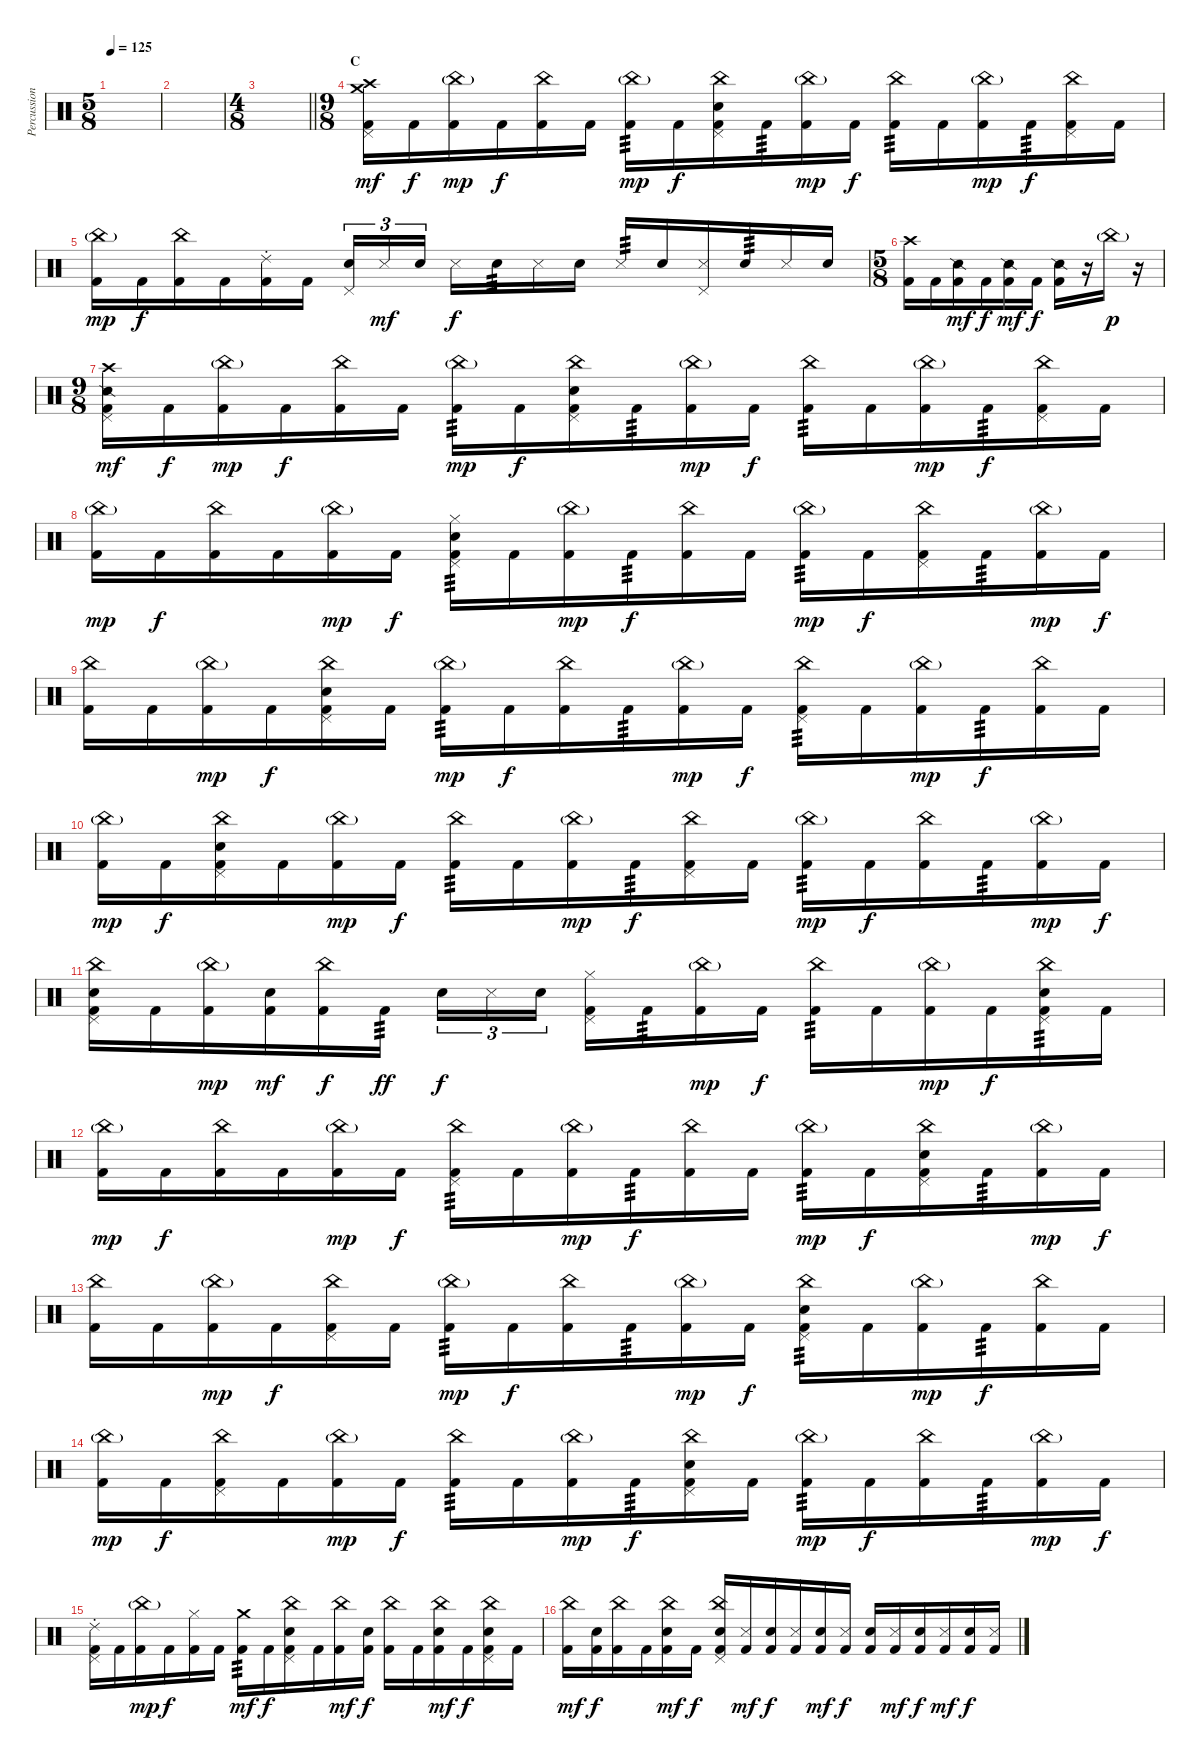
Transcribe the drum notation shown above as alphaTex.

\track ("Percussion" "Percussion") {instrument percussion}
\staff {score}
\articulation defaults
\ts (5 8)
\tempo 125
\clef neutral
\ks c
|
|
\ts (4 8)
\barLineRight lightlight
|
\ts (9 8)
\section ("" "C")
("Crash medium (hit)" "Crash high (hit)" "Pedal Hi-Hat (hit)" "Kick (hit) 2").16{dy mf} "Kick (hit) 2".16{dy f} ("China (hit)"{g} "Kick (hit) 2").16{dy mp} "Kick (hit) 2".16{dy f} ("China (hit)" "Kick (hit) 2").16 "Kick (hit) 2".16 ("China (hit)"{g} "Kick (hit) 2").16{tp 3 dy mp} "Kick (hit) 2".16{dy f} ("China (hit)" "Pedal Hi-Hat (hit)" "Snare (hit) 2" "Kick (hit) 2").16 "Kick (hit) 2".16{tp 3} ("China (hit)"{g} "Kick (hit) 2").16{dy mp} "Kick (hit) 2".16{dy f} ("China (hit)" "Kick (hit) 2").16{tp 3} "Kick (hit) 2".16 ("China (hit)"{g} "Kick (hit) 2").16{dy mp} "Kick (hit) 2".16{tp 3 dy f} ("China (hit)" "Pedal Hi-Hat (hit)" "Kick (hit) 2").16 "Kick (hit) 2".16 |
("China (hit)"{g} "Kick (hit) 2").16{dy mp} "Kick (hit) 2".16{dy f} ("China (hit)" "Kick (hit) 2").16 "Kick (hit) 2".16 ("Ride (choke) 2" "Kick (hit) 2").16 "Kick (hit) 2".16 ("Pedal Hi-Hat (hit)" "Snare (hit) 2").16{tu (3 2)} "Metronome (hit)".16{tu (3 2) dy mf} "Snare (hit) 2".16{tu (3 2) beam splitsecondary} "Metronome (hit)".16{dy f} "Snare (hit) 2".16{tp 3} "Metronome (hit)".16 "Snare (hit) 2".16 "Metronome (hit)".16{tp 3} "Snare (hit) 2".16 ("Pedal Hi-Hat (hit)" "Metronome (hit)").16 "Snare (hit) 2".16{tp 3} "Metronome (hit)".16 "Snare (hit) 2".16 |
\ts (5 8)
("Crash high (hit)" "Kick (hit) 2").16 "Kick (hit) 2".16 ("Snare (side stick) 2" "Kick (hit) 2").16{dy mf} "Kick (hit) 2".16{dy f} ("Snare (side stick) 2" "Kick (hit) 2").16{dy mf} "Kick (hit) 2".16{dy f} ("Snare (side stick) 2" "Kick (hit) 2").16 r.16 "China (hit)"{g}.16{dy p} r.16 |
\ts (9 8)
("Snare (side stick) 2" "Crash high (hit)" "Pedal Hi-Hat (hit)" "Kick (hit) 2").16{dy mf} "Kick (hit) 2".16{dy f} ("China (hit)"{g} "Kick (hit) 2").16{dy mp} "Kick (hit) 2".16{dy f} ("China (hit)" "Kick (hit) 2").16 "Kick (hit) 2".16 ("China (hit)"{g} "Kick (hit) 2").16{tp 3 dy mp} "Kick (hit) 2".16{dy f} ("China (hit)" "Pedal Hi-Hat (hit)" "Snare (hit) 2" "Kick (hit) 2").16 "Kick (hit) 2".16{tp 3} ("China (hit)"{g} "Kick (hit) 2").16{dy mp} "Kick (hit) 2".16{dy f} ("China (hit)" "Kick (hit) 2").16{tp 3} "Kick (hit) 2".16 ("China (hit)"{g} "Kick (hit) 2").16{dy mp} "Kick (hit) 2".16{tp 3 dy f} ("China (hit)" "Pedal Hi-Hat (hit)" "Kick (hit) 2").16 "Kick (hit) 2".16 |
("China (hit)"{g} "Kick (hit) 2").16{dy mp} "Kick (hit) 2".16{dy f} ("China (hit)" "Kick (hit) 2").16 "Kick (hit) 2".16 ("China (hit)"{g} "Kick (hit) 2").16{dy mp} "Kick (hit) 2".16{dy f} ("Hi-Hat (closed)" "Pedal Hi-Hat (hit)" "Snare (hit) 2" "Kick (hit) 2").16{tp 3} "Kick (hit) 2".16 ("China (hit)"{g} "Kick (hit) 2").16{dy mp} "Kick (hit) 2".16{tp 3 dy f} ("China (hit)" "Kick (hit) 2").16 "Kick (hit) 2".16 ("China (hit)"{g} "Kick (hit) 2").16{tp 3 dy mp} "Kick (hit) 2".16{dy f} ("China (hit)" "Pedal Hi-Hat (hit)" "Kick (hit) 2").16 "Kick (hit) 2".16{tp 3} ("China (hit)"{g} "Kick (hit) 2").16{dy mp} "Kick (hit) 2".16{dy f} |
("China (hit)" "Kick (hit) 2").16 "Kick (hit) 2".16 ("China (hit)"{g} "Kick (hit) 2").16{dy mp} "Kick (hit) 2".16{dy f} ("China (hit)" "Pedal Hi-Hat (hit)" "Snare (hit) 2" "Kick (hit) 2").16 "Kick (hit) 2".16 ("China (hit)"{g} "Kick (hit) 2").16{tp 3 dy mp} "Kick (hit) 2".16{dy f} ("China (hit)" "Kick (hit) 2").16 "Kick (hit) 2".16{tp 3} ("China (hit)"{g} "Kick (hit) 2").16{dy mp} "Kick (hit) 2".16{dy f} ("China (hit)" "Pedal Hi-Hat (hit)" "Kick (hit) 2").16{tp 3} "Kick (hit) 2".16 ("China (hit)"{g} "Kick (hit) 2").16{dy mp} "Kick (hit) 2".16{tp 3 dy f} ("China (hit)" "Kick (hit) 2").16 "Kick (hit) 2".16 |
("China (hit)"{g} "Kick (hit) 2").16{dy mp} "Kick (hit) 2".16{dy f} ("China (hit)" "Pedal Hi-Hat (hit)" "Snare (hit) 2" "Kick (hit) 2").16 "Kick (hit) 2".16 ("China (hit)"{g} "Kick (hit) 2").16{dy mp} "Kick (hit) 2".16{dy f} ("China (hit)" "Kick (hit) 2").16{tp 3} "Kick (hit) 2".16 ("China (hit)"{g} "Kick (hit) 2").16{dy mp} "Kick (hit) 2".16{tp 3 dy f} ("China (hit)" "Pedal Hi-Hat (hit)" "Kick (hit) 2").16 "Kick (hit) 2".16 ("China (hit)"{g} "Kick (hit) 2").16{tp 3 dy mp} "Kick (hit) 2".16{dy f} ("China (hit)" "Kick (hit) 2").16 "Kick (hit) 2".16{tp 3} ("China (hit)"{g} "Kick (hit) 2").16{dy mp} "Kick (hit) 2".16{dy f} |
("China (hit)" "Pedal Hi-Hat (hit)" "Snare (hit) 2" "Kick (hit) 2").16 "Kick (hit) 2".16 ("China (hit)"{g} "Kick (hit) 2").16{dy mp} ("Snare (hit) 2" "Kick (hit) 2").16{dy mf} ("China (hit)" "Kick (hit) 2").16{dy f} "Kick (hit) 2".16{tp 3 dy ff} "Snare (hit) 2".16{tu (3 2) dy f} "Metronome (hit)".16{tu (3 2)} "Snare (hit) 2".16{tu (3 2) beam splitsecondary} ("Hi-Hat (closed)" "Pedal Hi-Hat (hit)" "Kick (hit) 2").16 "Kick (hit) 2".16{tp 3} ("China (hit)"{g} "Kick (hit) 2").16{dy mp} "Kick (hit) 2".16{dy f} ("China (hit)" "Kick (hit) 2").16{tp 3} "Kick (hit) 2".16 ("China (hit)"{g} "Kick (hit) 2").16{dy mp} "Kick (hit) 2".16{dy f} ("China (hit)" "Pedal Hi-Hat (hit)" "Snare (hit) 2" "Kick (hit) 2").16{tp 3} "Kick (hit) 2".16 |
("China (hit)"{g} "Kick (hit) 2").16{dy mp} "Kick (hit) 2".16{dy f} ("China (hit)" "Kick (hit) 2").16 "Kick (hit) 2".16 ("China (hit)"{g} "Kick (hit) 2").16{dy mp} "Kick (hit) 2".16{dy f} ("China (hit)" "Pedal Hi-Hat (hit)" "Kick (hit) 2").16{tp 3} "Kick (hit) 2".16 ("China (hit)"{g} "Kick (hit) 2").16{dy mp} "Kick (hit) 2".16{tp 3 dy f} ("China (hit)" "Kick (hit) 2").16 "Kick (hit) 2".16 ("China (hit)"{g} "Kick (hit) 2").16{tp 3 dy mp} "Kick (hit) 2".16{dy f} ("China (hit)" "Pedal Hi-Hat (hit)" "Snare (hit) 2" "Kick (hit) 2").16 "Kick (hit) 2".16{tp 3} ("China (hit)"{g} "Kick (hit) 2").16{dy mp} "Kick (hit) 2".16{dy f} |
("China (hit)" "Kick (hit) 2").16 "Kick (hit) 2".16 ("China (hit)"{g} "Kick (hit) 2").16{dy mp} "Kick (hit) 2".16{dy f} ("China (hit)" "Pedal Hi-Hat (hit)" "Kick (hit) 2").16 "Kick (hit) 2".16 ("China (hit)"{g} "Kick (hit) 2").16{tp 3 dy mp} "Kick (hit) 2".16{dy f} ("China (hit)" "Kick (hit) 2").16 "Kick (hit) 2".16{tp 3} ("China (hit)"{g} "Kick (hit) 2").16{dy mp} "Kick (hit) 2".16{dy f} ("China (hit)" "Pedal Hi-Hat (hit)" "Snare (hit) 2" "Kick (hit) 2").16{tp 3} "Kick (hit) 2".16 ("China (hit)"{g} "Kick (hit) 2").16{dy mp} "Kick (hit) 2".16{tp 3 dy f} ("China (hit)" "Kick (hit) 2").16 "Kick (hit) 2".16 |
("China (hit)"{g} "Kick (hit) 2").16{dy mp} "Kick (hit) 2".16{dy f} ("China (hit)" "Pedal Hi-Hat (hit)" "Kick (hit) 2").16 "Kick (hit) 2".16 ("China (hit)"{g} "Kick (hit) 2").16{dy mp} "Kick (hit) 2".16{dy f} ("China (hit)" "Kick (hit) 2").16{tp 3} "Kick (hit) 2".16 ("China (hit)"{g} "Kick (hit) 2").16{dy mp} "Kick (hit) 2".16{tp 3 dy f} ("China (hit)" "Pedal Hi-Hat (hit)" "Snare (hit) 2" "Kick (hit) 2").16 "Kick (hit) 2".16 ("China (hit)"{g} "Kick (hit) 2").16{tp 3 dy mp} "Kick (hit) 2".16{dy f} ("China (hit)" "Kick (hit) 2").16 "Kick (hit) 2".16{tp 3} ("China (hit)"{g} "Kick (hit) 2").16{dy mp} "Kick (hit) 2".16{dy f} |
("Ride (choke) 2" "Pedal Hi-Hat (hit)" "Kick (hit) 2").16 "Kick (hit) 2".16 ("China (hit)"{g} "Kick (hit) 2").16{dy mp} "Kick (hit) 2".16{dy f} ("Hi-Hat (closed)" "Kick (hit) 2").16 "Kick (hit) 2".16 ("Crash medium (hit)" "Kick (hit) 2").16{tp 3 dy mf} "Kick (hit) 2".16{dy f} ("China (hit)" "Pedal Hi-Hat (hit)" "Snare (hit) 2" "Kick (hit) 2").16 "Kick (hit) 2".16 ("China (hit)" "Kick (hit) 2").16{dy mf} ("Snare (hit) 2" "Kick (hit) 2").16{dy f} ("China (hit)" "Kick (hit) 2").16 "Kick (hit) 2".16 ("China (hit)" "Snare (hit) 2" "Kick (hit) 2").16{dy mf} "Kick (hit) 2".16{dy f} ("China (hit)" "Pedal Hi-Hat (hit)" "Snare (hit) 2" "Kick (hit) 2").16 "Kick (hit) 2".16 |
("China (hit)" "Kick (hit) 2").16{dy mf} ("Snare (hit) 2" "Kick (hit) 2").16{dy f} ("China (hit)" "Kick (hit) 2").16 "Kick (hit) 2".16 ("China (hit)" "Snare (hit) 2" "Kick (hit) 2").16{dy mf} "Kick (hit) 2".16{dy f} ("China (hit)" "Pedal Hi-Hat (hit)" "Snare (hit) 2" "Kick (hit) 2").16 ("Metronome (hit)" "Kick (hit) 2").16{dy mf} ("Snare (hit) 2" "Kick (hit) 2").16{dy f} ("Metronome (hit)" "Kick (hit) 2").16 ("Snare (hit) 2" "Kick (hit) 2").16{dy mf} ("Metronome (hit)" "Kick (hit) 2").16{dy f} ("Snare (hit) 2" "Kick (hit) 2").16 ("Metronome (hit)" "Kick (hit) 2").16{dy mf} ("Snare (hit) 2" "Kick (hit) 2").16{dy f} ("Metronome (hit)" "Kick (hit) 2").16{dy mf} ("Snare (hit) 2" "Kick (hit) 2").16{dy f} ("Metronome (hit)" "Kick (hit) 2").16
